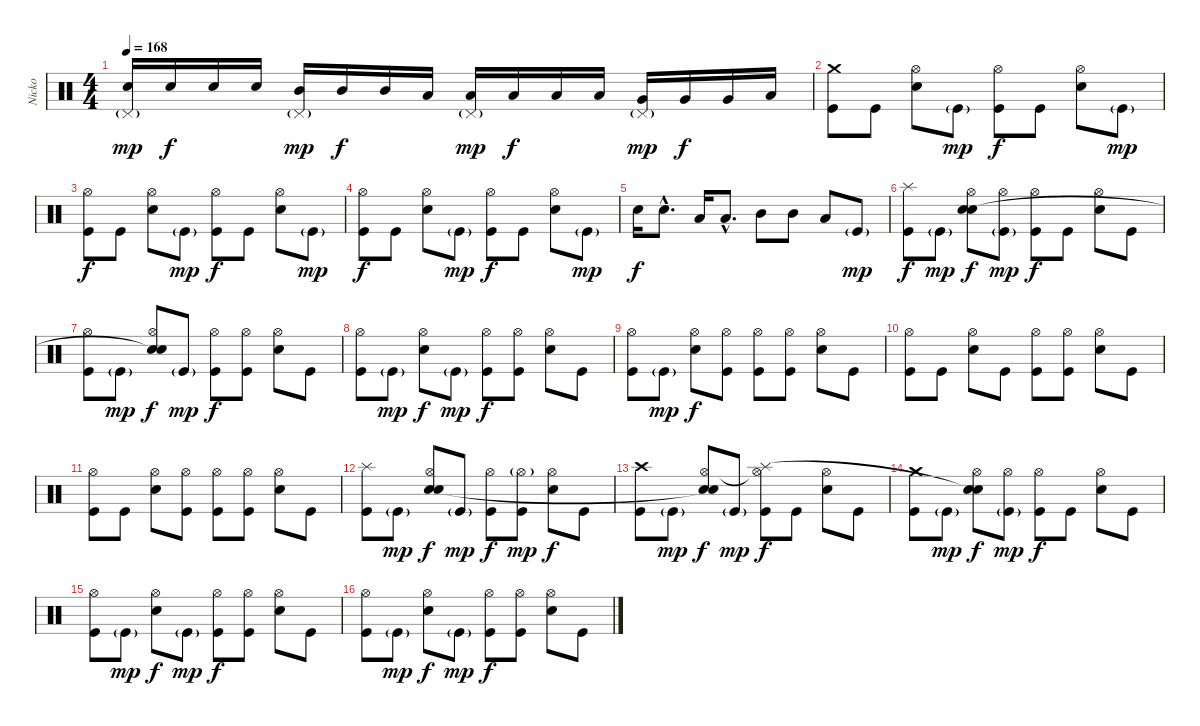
\track ("Nicko" "Nicko") {instrument percussion}
\staff {score}
\articulation defaults
\ts (4 4)
\tempo 168
\clef neutral
\ks c
("Electric Snare (hit)" "Pedal Hi-Hat (hit)"{g}).16{dy mp volume 12} "Electric Snare (hit)".16{dy f} "Electric Snare (hit)".16 "Electric Snare (hit)".16 ("Mid Tom (hit)" "Pedal Hi-Hat (hit)"{g}).16{dy mp} "Mid Tom (hit)".16{dy f} "Mid Tom (hit)".16 "Low Tom (hit)".16 ("Low Tom (hit)" "Pedal Hi-Hat (hit)"{g}).16{dy mp} "Low Tom (hit)".16{dy f} "Low Tom (hit)".16 "Low Tom (hit)".16 ("Very Low Tom (hit)" "Pedal Hi-Hat (hit)"{g}).16{dy mp} "Very Low Tom (hit)".16{dy f} "Very Low Tom (hit)".16 "Low Floor Tom (hit)".16 |
("Kick (hit)" "Crash medium (hit)").8{volume 13} "Kick (hit)".8 ("Electric Snare (hit)" "Hi-Hat (open)").8 "Kick (hit)"{g}.8{dy mp} ("Kick (hit)" "Hi-Hat (open)").8{dy f} "Kick (hit)".8 ("Electric Snare (hit)" "Hi-Hat (open)").8 "Kick (hit)"{g}.8{dy mp} |
("Kick (hit)" "Hi-Hat (open)").8{dy f} "Kick (hit)".8 ("Electric Snare (hit)" "Hi-Hat (open)").8 "Kick (hit)"{g}.8{dy mp} ("Kick (hit)" "Hi-Hat (open)").8{dy f} "Kick (hit)".8 ("Electric Snare (hit)" "Hi-Hat (open)").8 "Kick (hit)"{g}.8{dy mp} |
("Kick (hit)" "Hi-Hat (open)").8{dy f} "Kick (hit)".8 ("Electric Snare (hit)" "Hi-Hat (open)").8 "Kick (hit)"{g}.8{dy mp} ("Kick (hit)" "Hi-Hat (open)").8{dy f} "Kick (hit)".8 ("Electric Snare (hit)" "Hi-Hat (open)").8 "Kick (hit)"{g}.8{dy mp} |
"Electric Snare (hit)".16{dy f} "Electric Snare (hit)"{hac}.8{d} "Low Tom (hit)".16 "Low Tom (hit)"{hac}.8{d} "Mid Tom (hit)".8 "Mid Tom (hit)".8 "Low Tom (hit)".8 "Kick (hit)"{g}.8{dy mp} |
("Kick (hit)" "Splash (hit)").8{dy f} "Kick (hit)"{g}.8{dy mp} ("Electric Snare (hit)" "Hi-Hat (open)" "Snare (hit)").8{dy f} ("Kick (hit)"{g} "Hi-Hat (open)").8{dy mp} ("Kick (hit)" "Hi-Hat (open)").8{dy f} "Kick (hit)".8 ("Electric Snare (hit)" "Hi-Hat (open)").8 "Kick (hit)".8 |
("Kick (hit)" "Hi-Hat (open)").8 "Kick (hit)"{g}.8{dy mp} ("Electric Snare (hit)" "Hi-Hat (open)" "Snare (hit)"{t}).8{dy f} "Kick (hit)"{g}.8{dy mp} ("Kick (hit)" "Hi-Hat (open)").8{dy f} ("Kick (hit)" "Hi-Hat (open)").8 ("Electric Snare (hit)" "Hi-Hat (open)").8 "Kick (hit)".8 |
("Kick (hit)" "Hi-Hat (open)").8 "Kick (hit)"{g}.8{dy mp} ("Electric Snare (hit)" "Hi-Hat (open)").8{dy f} "Kick (hit)"{g}.8{dy mp} ("Kick (hit)" "Hi-Hat (open)").8{dy f} ("Kick (hit)" "Hi-Hat (open)").8 ("Electric Snare (hit)" "Hi-Hat (open)").8 "Kick (hit)".8 |
("Kick (hit)" "Hi-Hat (open)").8 "Kick (hit)"{g}.8{dy mp} ("Electric Snare (hit)" "Hi-Hat (open)").8{dy f} ("Kick (hit)" "Hi-Hat (open)").8 ("Kick (hit)" "Hi-Hat (open)").8 ("Kick (hit)" "Hi-Hat (open)").8 ("Electric Snare (hit)" "Hi-Hat (open)").8 "Kick (hit)".8 |
("Kick (hit)" "Hi-Hat (open)").8 "Kick (hit)".8 ("Electric Snare (hit)" "Hi-Hat (open)").8 "Kick (hit)".8 ("Kick (hit)" "Hi-Hat (open)").8 ("Kick (hit)" "Hi-Hat (open)").8 ("Electric Snare (hit)" "Hi-Hat (open)").8 "Kick (hit)".8 |
("Kick (hit)" "Hi-Hat (open)").8 "Kick (hit)".8 ("Electric Snare (hit)" "Hi-Hat (open)").8 ("Kick (hit)" "Hi-Hat (open)").8 ("Kick (hit)" "Hi-Hat (open)").8 ("Kick (hit)" "Hi-Hat (open)").8 ("Electric Snare (hit)" "Hi-Hat (open)").8 "Kick (hit)".8 |
("Kick (hit)" "Splash (hit)").8 "Kick (hit)"{g}.8{dy mp} ("Electric Snare (hit)" "Hi-Hat (open)" "Snare (hit)").8{dy f} "Kick (hit)"{g}.8{dy mp} ("Kick (hit)" "Hi-Hat (open)").8{dy f} ("Kick (hit)" "Hi-Hat (open)"{g}).8{dy mp} ("Electric Snare (hit)" "Hi-Hat (open)").8{dy f} "Kick (hit)".8 |
("Kick (hit)" "Crash high (hit)").8 "Kick (hit)"{g}.8{dy mp} ("Electric Snare (hit)" "Hi-Hat (open)" "Snare (hit)"{t}).8{dy f} "Kick (hit)"{g}.8{dy mp} ("Kick (hit)" "Hi-Hat (open)"{t} "Splash (hit)").8{dy f} "Kick (hit)".8 ("Electric Snare (hit)" "Hi-Hat (open)").8 "Kick (hit)".8 |
("Kick (hit)" "Crash medium (hit)").8 "Kick (hit)"{g}.8{dy mp} ("Electric Snare (hit)" "Hi-Hat (open)" "Snare (hit)"{t}).8{dy f} ("Kick (hit)"{g} "Hi-Hat (open)").8{dy mp} ("Kick (hit)" "Hi-Hat (open)").8{dy f} "Kick (hit)".8 ("Electric Snare (hit)" "Hi-Hat (open)").8 "Kick (hit)".8 |
("Kick (hit)" "Hi-Hat (open)").8 "Kick (hit)"{g}.8{dy mp} ("Electric Snare (hit)" "Hi-Hat (open)").8{dy f} "Kick (hit)"{g}.8{dy mp} ("Kick (hit)" "Hi-Hat (open)").8{dy f} ("Kick (hit)" "Hi-Hat (open)").8 ("Electric Snare (hit)" "Hi-Hat (open)").8 "Kick (hit)".8 |
("Kick (hit)" "Hi-Hat (open)").8 "Kick (hit)"{g}.8{dy mp} ("Electric Snare (hit)" "Hi-Hat (open)").8{dy f} "Kick (hit)"{g}.8{dy mp} ("Kick (hit)" "Hi-Hat (open)").8{dy f} ("Kick (hit)" "Hi-Hat (open)").8 ("Electric Snare (hit)" "Hi-Hat (open)").8 "Kick (hit)".8
